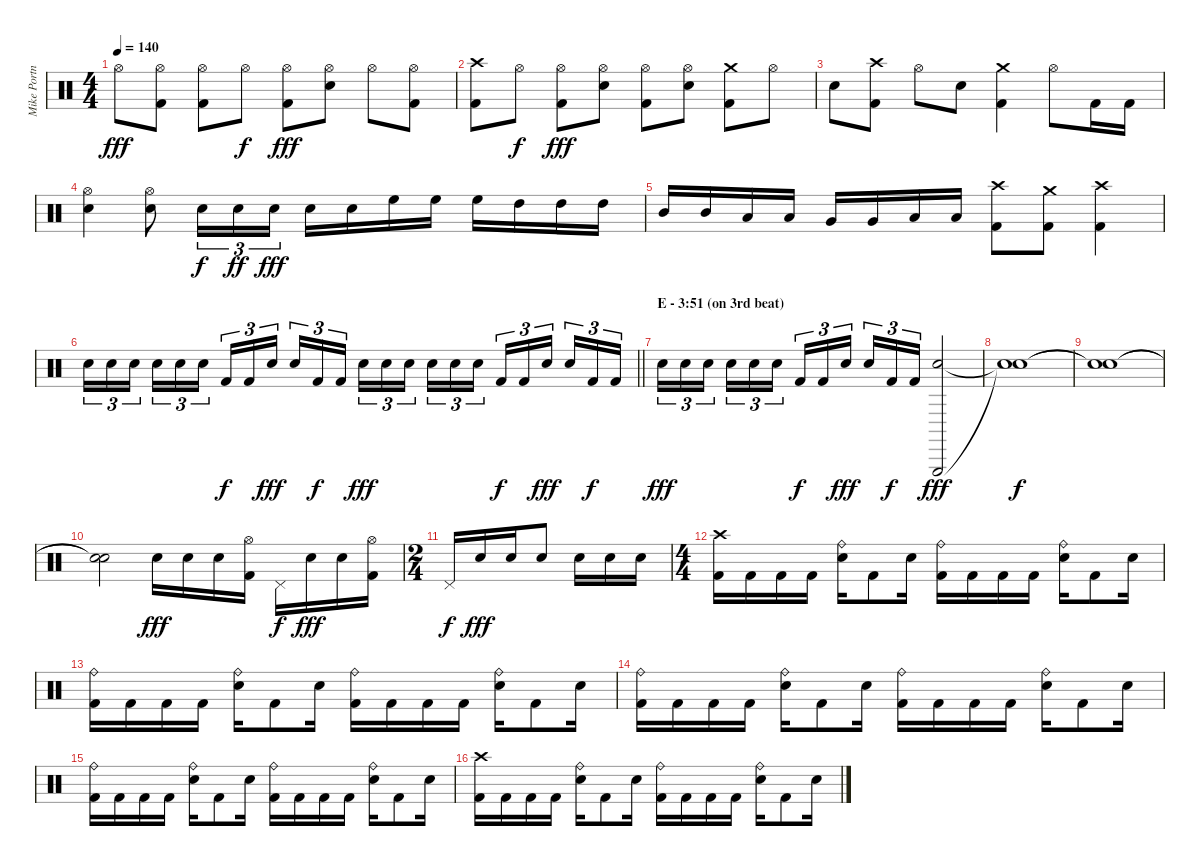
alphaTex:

\track ("Mike Portnoy" "Mike Portn") {instrument percussion}
\staff {score}
\articulation defaults
\ts (4 4)
\tempo 140
\clef neutral
\ks c "Hi-Hat (open)".8{dy fff}
("Hi-Hat (open)" "Kick (hit) 2").8 ("Hi-Hat (open)" "Kick (hit) 2").8 "Hi-Hat (open)".8{dy f} ("Hi-Hat (open)" "Kick (hit) 2").8{dy fff} ("Hi-Hat (open)" "Snare (hit) 2").8 "Hi-Hat (open)".8 ("Hi-Hat (open)" "Kick (hit) 2").8 |
("Crash high (hit)" "Kick (hit) 2").8 "Hi-Hat (open)".8{dy f} ("Hi-Hat (open)" "Kick (hit) 2").8{dy fff} ("Hi-Hat (open)" "Snare (hit) 2").8 ("Hi-Hat (open)" "Kick (hit) 2").8 ("Hi-Hat (open)" "Snare (hit) 2").8 ("Crash medium (hit)" "Kick (hit) 2").8 "Hi-Hat (open)".8 |
"Snare (hit) 2".8 ("Crash high (hit)" "Kick (hit) 2").8 "Hi-Hat (open)".8 "Snare (hit) 2".8 ("Crash medium (hit)" "Kick (hit) 2").4 "Hi-Hat (open)".8 "Kick (hit) 2".16 "Kick (hit) 2".16 |
("Hi-Hat (open)" "Snare (hit) 2").4 ("Hi-Hat (open)" "Snare (hit) 2").8 "Snare (hit) 2".16{tu (3 2) dy f} "Snare (hit) 2".16{tu (3 2) dy ff} "Snare (hit) 2".16{tu (3 2) dy fff} "Snare (hit) 2".16 "Snare (hit) 2".16 "High Floor Tom (hit)".16 "High Floor Tom (hit)".16 "High Floor Tom (hit)".16 "High Tom (hit)".16 "High Tom (hit)".16 "High Tom (hit)".16 |
"Mid Tom (hit)".16 "Mid Tom (hit)".16 "Low Tom (hit)".16 "Low Tom (hit)".16 "Very Low Tom (hit)".16 "Very Low Tom (hit)".16 "Low Floor Tom (hit)".16 "Low Floor Tom (hit)".16 ("Crash high (hit)" "Kick (hit) 2").8 ("Crash medium (hit)" "Kick (hit) 2").8 ("Crash high (hit)" "Kick (hit) 2").4 |
\barLineRight lightlight "Snare (hit) 2".16{tu (3 2)} "Snare (hit) 2".16{tu (3 2)} "Snare (hit) 2".16{tu (3 2) beam splitsecondary} "Snare (hit) 2".16{tu (3 2)} "Snare (hit) 2".16{tu (3 2)} "Snare (hit) 2".16{tu (3 2)} "Kick (hit) 2".16{tu (3 2) dy f} "Kick (hit) 2".16{tu (3 2)} "Snare (hit) 2".16{tu (3 2) dy fff beam splitsecondary} "Snare (hit) 2".16{tu (3 2)} "Kick (hit) 2".16{tu (3 2) dy f} "Kick (hit) 2".16{tu (3 2)} "Snare (hit) 2".16{tu (3 2) dy fff} "Snare (hit) 2".16{tu (3 2)} "Snare (hit) 2".16{tu (3 2) beam splitsecondary} "Snare (hit) 2".16{tu (3 2)} "Snare (hit) 2".16{tu (3 2)} "Snare (hit) 2".16{tu (3 2)} "Kick (hit) 2".16{tu (3 2) dy f} "Kick (hit) 2".16{tu (3 2)} "Snare (hit) 2".16{tu (3 2) dy fff beam splitsecondary} "Snare (hit) 2".16{tu (3 2)} "Kick (hit) 2".16{tu (3 2) dy f} "Kick (hit) 2".16{tu (3 2)}
|
\section ("" "E - 3:51 (on 3rd beat)")
"Snare (hit) 2".16{tu (3 2) dy fff} "Snare (hit) 2".16{tu (3 2)} "Snare (hit) 2".16{tu (3 2) beam splitsecondary} "Snare (hit) 2".16{tu (3 2)} "Snare (hit) 2".16{tu (3 2)} "Snare (hit) 2".16{tu (3 2)} "Kick (hit) 2".16{tu (3 2) dy f} "Kick (hit) 2".16{tu (3 2)} "Snare (hit) 2".16{tu (3 2) dy fff beam splitsecondary} "Snare (hit) 2".16{tu (3 2)} "Kick (hit) 2".16{tu (3 2) dy f} "Kick (hit) 2".16{tu (3 2)} ("Snare (hit) 2" "Triangle (hit)").2{dy fff} |
("Snare (hit)"{t} "Snare (hit)"{t}).1{dy f} |
("Snare (hit)"{t} "Snare (hit)"{t}).1 |
("Snare (hit)"{t} "Snare (hit)"{t}).2 "Snare (hit) 2".16{dy fff} "Snare (hit) 2".16 "Snare (hit) 2".16 ("Hi-Hat (open)" "Kick (hit) 2").16 "Pedal Hi-Hat (hit)".16{dy f} "Snare (hit) 2".16{dy fff} "Snare (hit) 2".16 ("Hi-Hat (open)" "Kick (hit) 2").16 |
\ts (2 4)
"Pedal Hi-Hat (hit)".16{dy f} "Snare (hit) 2".16{dy fff} "Snare (hit) 2".16 "Snare (hit) 2".8 "Snare (hit) 2".16 "Snare (hit) 2".16 "Snare (hit) 2".16 |
\ts (4 4)
("Crash high (hit)" "Kick (hit) 2").16 "Kick (hit) 2".16 "Kick (hit) 2".16 "Kick (hit) 2".16 ("Ride (bell)" "Snare (hit) 2").16 "Kick (hit) 2".8 "Snare (hit) 2".16 ("Ride (bell)" "Kick (hit) 2").16 "Kick (hit) 2".16 "Kick (hit) 2".16 "Kick (hit) 2".16 ("Ride (bell)" "Snare (hit) 2").16 "Kick (hit) 2".8 "Snare (hit) 2".16 |
("Ride (bell)" "Kick (hit) 2").16 "Kick (hit) 2".16 "Kick (hit) 2".16 "Kick (hit) 2".16 ("Ride (bell)" "Snare (hit) 2").16 "Kick (hit) 2".8 "Snare (hit) 2".16 ("Ride (bell)" "Kick (hit) 2").16 "Kick (hit) 2".16 "Kick (hit) 2".16 "Kick (hit) 2".16 ("Ride (bell)" "Snare (hit) 2").16 "Kick (hit) 2".8 "Snare (hit) 2".16 |
("Ride (bell)" "Kick (hit) 2").16 "Kick (hit) 2".16 "Kick (hit) 2".16 "Kick (hit) 2".16 ("Ride (bell)" "Snare (hit) 2").16 "Kick (hit) 2".8 "Snare (hit) 2".16 ("Ride (bell)" "Kick (hit) 2").16 "Kick (hit) 2".16 "Kick (hit) 2".16 "Kick (hit) 2".16 ("Ride (bell)" "Snare (hit) 2").16 "Kick (hit) 2".8 "Snare (hit) 2".16 |
("Ride (bell)" "Kick (hit) 2").16 "Kick (hit) 2".16 "Kick (hit) 2".16 "Kick (hit) 2".16 ("Ride (bell)" "Snare (hit) 2").16 "Kick (hit) 2".8 "Snare (hit) 2".16 ("Ride (bell)" "Kick (hit) 2").16 "Kick (hit) 2".16 "Kick (hit) 2".16 "Kick (hit) 2".16 ("Ride (bell)" "Snare (hit) 2").16 "Kick (hit) 2".8 "Snare (hit) 2".16 |
("Crash high (hit)" "Kick (hit) 2").16 "Kick (hit) 2".16 "Kick (hit) 2".16 "Kick (hit) 2".16 ("Ride (bell)" "Snare (hit) 2").16 "Kick (hit) 2".8 "Snare (hit) 2".16 ("Ride (bell)" "Kick (hit) 2").16 "Kick (hit) 2".16 "Kick (hit) 2".16 "Kick (hit) 2".16 ("Ride (bell)" "Snare (hit) 2").16 "Kick (hit) 2".8 "Snare (hit) 2".16
